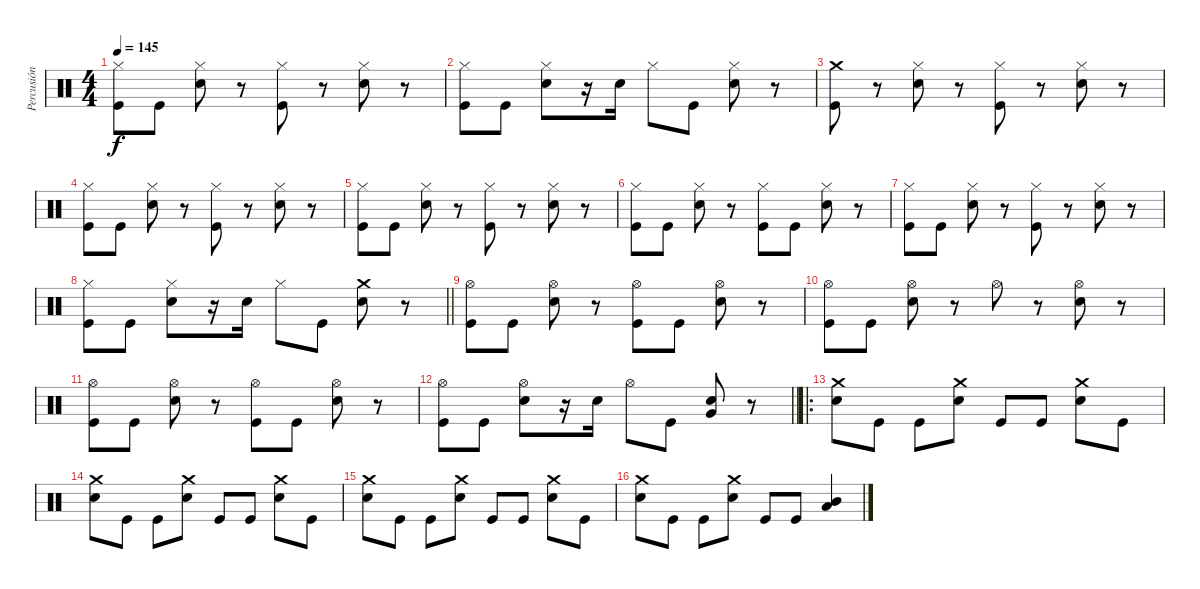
\track ("Percusión" "Percusión") {instrument percussion}
\staff {score}
\articulation defaults
\ts (4 4)
\tempo 145
\clef neutral
\ks c
("Hi-Hat (closed)" "Kick (hit)").8{dy f} "Kick (hit)".8 ("Hi-Hat (closed)" "Snare (hit) 2").8 r.8 ("Hi-Hat (closed)" "Kick (hit)").8 r.8 ("Hi-Hat (closed)" "Snare (hit) 2").8 r.8 |
("Hi-Hat (closed)" "Kick (hit)").8 "Kick (hit)".8 ("Hi-Hat (closed)" "Snare (hit) 2").8 r.16 "Snare (hit) 2".16 "Hi-Hat (closed)".8 "Kick (hit)".8 ("Hi-Hat (closed)" "Snare (hit) 2").8 r.8 |
("Crash medium (hit)" "Kick (hit)").8 r.8 ("Hi-Hat (closed)" "Snare (hit) 2").8 r.8 ("Hi-Hat (closed)" "Kick (hit)").8 r.8 ("Hi-Hat (closed)" "Snare (hit) 2").8 r.8 |
("Hi-Hat (closed)" "Kick (hit)").8 "Kick (hit)".8 ("Hi-Hat (closed)" "Snare (hit) 2").8 r.8 ("Hi-Hat (closed)" "Kick (hit)").8 r.8 ("Hi-Hat (closed)" "Snare (hit) 2").8 r.8 |
("Hi-Hat (closed)" "Kick (hit)").8 "Kick (hit)".8 ("Hi-Hat (closed)" "Snare (hit) 2").8 r.8 ("Hi-Hat (closed)" "Kick (hit)").8 r.8 ("Hi-Hat (closed)" "Snare (hit) 2").8 r.8 |
("Hi-Hat (closed)" "Kick (hit)").8 "Kick (hit)".8 ("Hi-Hat (closed)" "Snare (hit) 2").8 r.8 ("Hi-Hat (closed)" "Kick (hit)").8 "Kick (hit)".8 ("Hi-Hat (closed)" "Snare (hit) 2").8 r.8 |
("Hi-Hat (closed)" "Kick (hit)").8 "Kick (hit)".8 ("Hi-Hat (closed)" "Snare (hit) 2").8 r.8 ("Hi-Hat (closed)" "Kick (hit)").8 r.8 ("Hi-Hat (closed)" "Snare (hit) 2").8 r.8 |
\barLineRight lightlight
("Hi-Hat (closed)" "Kick (hit)").8 "Kick (hit)".8 ("Hi-Hat (closed)" "Snare (hit) 2").8 r.16 "Snare (hit) 2".16 "Hi-Hat (closed)".8 "Kick (hit)".8 ("Crash medium (hit)" "Snare (hit) 2").8 r.8 |
("Hi-Hat (open)" "Kick (hit)").8 "Kick (hit)".8 ("Hi-Hat (open)" "Snare (hit) 2").8 r.8 ("Hi-Hat (open)" "Kick (hit)").8 "Kick (hit)".8 ("Hi-Hat (open)" "Snare (hit) 2").8 r.8 |
("Hi-Hat (open)" "Kick (hit)").8 "Kick (hit)".8 ("Hi-Hat (open)" "Snare (hit) 2").8 r.8 "Hi-Hat (open)".8 r.8 ("Hi-Hat (open)" "Snare (hit) 2").8 r.8 |
("Hi-Hat (open)" "Kick (hit)").8 "Kick (hit)".8 ("Hi-Hat (open)" "Snare (hit) 2").8 r.8 ("Hi-Hat (open)" "Kick (hit)").8 "Kick (hit)".8 ("Hi-Hat (open)" "Snare (hit) 2").8 r.8 |
\barLineRight lightlight
("Hi-Hat (open)" "Kick (hit)").8 "Kick (hit)".8 ("Hi-Hat (open)" "Snare (hit) 2").8 r.16 "Snare (hit) 2".16 "Hi-Hat (open)".8 "Kick (hit)".8 ("Very Low Tom (hit)" "Snare (hit) 2").8 r.8 |
\ro
("Crash medium (hit)" "Snare (hit) 2").8 "Kick (hit)".8 "Kick (hit)".8 ("Crash medium (hit)" "Snare (hit) 2").8 "Kick (hit)".8 "Kick (hit)".8 ("Crash medium (hit)" "Snare (hit) 2").8 "Kick (hit)".8 |
("Crash medium (hit)" "Snare (hit) 2").8 "Kick (hit)".8 "Kick (hit)".8 ("Crash medium (hit)" "Snare (hit) 2").8 "Kick (hit)".8 "Kick (hit)".8 ("Crash medium (hit)" "Snare (hit) 2").8 "Kick (hit)".8 |
("Crash medium (hit)" "Snare (hit) 2").8 "Kick (hit)".8 "Kick (hit)".8 ("Crash medium (hit)" "Snare (hit) 2").8 "Kick (hit)".8 "Kick (hit)".8 ("Crash medium (hit)" "Snare (hit) 2").8 "Kick (hit)".8 |
("Crash medium (hit)" "Snare (hit) 2").8 "Kick (hit)".8 "Kick (hit)".8 ("Crash medium (hit)" "Snare (hit) 2").8 "Kick (hit)".8 "Kick (hit)".8 ("Mid Tom (hit)" "Low Tom (hit)").4
